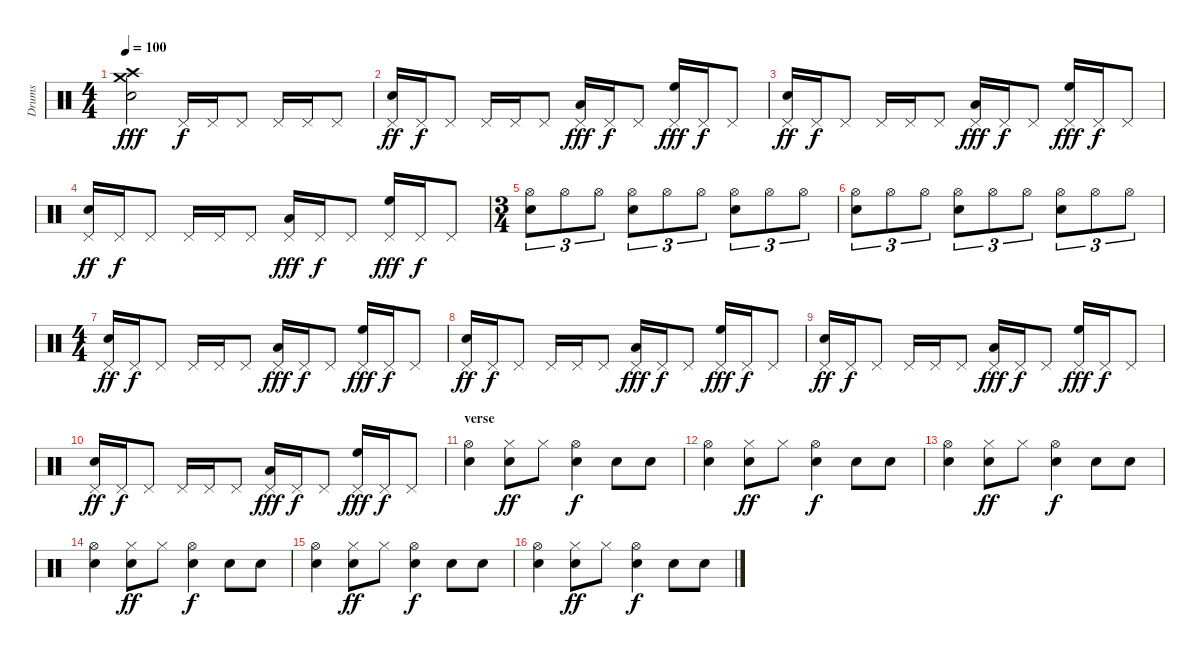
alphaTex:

\track ("Drums" "Drums") {instrument percussion}
\staff {score}
\articulation defaults
\ts (4 4)
\tempo 100
\clef neutral
\ks c
("Electric Snare (hit)" "Crash medium (hit)" "Crash high (hit)").2{dy fff} "Pedal Hi-Hat (hit)".16{dy f} "Pedal Hi-Hat (hit)".16 "Pedal Hi-Hat (hit)".8 "Pedal Hi-Hat (hit)".16 "Pedal Hi-Hat (hit)".16 "Pedal Hi-Hat (hit)".8 |
("Electric Snare (hit)" "Pedal Hi-Hat (hit)").16{dy ff} "Pedal Hi-Hat (hit)".16{dy f} "Pedal Hi-Hat (hit)".8 "Pedal Hi-Hat (hit)".16 "Pedal Hi-Hat (hit)".16 "Pedal Hi-Hat (hit)".8 ("Low Tom (hit)" "Pedal Hi-Hat (hit)").16{dy fff} "Pedal Hi-Hat (hit)".16{dy f} "Pedal Hi-Hat (hit)".8 ("Pedal Hi-Hat (hit)" "High Floor Tom (hit)").16{dy fff} "Pedal Hi-Hat (hit)".16{dy f} "Pedal Hi-Hat (hit)".8 |
("Electric Snare (hit)" "Pedal Hi-Hat (hit)").16{dy ff} "Pedal Hi-Hat (hit)".16{dy f} "Pedal Hi-Hat (hit)".8 "Pedal Hi-Hat (hit)".16 "Pedal Hi-Hat (hit)".16 "Pedal Hi-Hat (hit)".8 ("Low Tom (hit)" "Pedal Hi-Hat (hit)").16{dy fff} "Pedal Hi-Hat (hit)".16{dy f} "Pedal Hi-Hat (hit)".8 ("Pedal Hi-Hat (hit)" "High Floor Tom (hit)").16{dy fff} "Pedal Hi-Hat (hit)".16{dy f} "Pedal Hi-Hat (hit)".8 |
("Electric Snare (hit)" "Pedal Hi-Hat (hit)").16{dy ff} "Pedal Hi-Hat (hit)".16{dy f} "Pedal Hi-Hat (hit)".8 "Pedal Hi-Hat (hit)".16 "Pedal Hi-Hat (hit)".16 "Pedal Hi-Hat (hit)".8 ("Low Tom (hit)" "Pedal Hi-Hat (hit)").16{dy fff} "Pedal Hi-Hat (hit)".16{dy f} "Pedal Hi-Hat (hit)".8 ("Pedal Hi-Hat (hit)" "High Floor Tom (hit)").16{dy fff} "Pedal Hi-Hat (hit)".16{dy f} "Pedal Hi-Hat (hit)".8 |
\ts (3 4)
("Hi-Hat (open)" "Electric Snare (hit)").8{tu (3 2)} "Hi-Hat (open)".8{tu (3 2)} "Hi-Hat (open)".8{tu (3 2)} ("Electric Snare (hit)" "Hi-Hat (open)").8{tu (3 2)} "Hi-Hat (open)".8{tu (3 2)} "Hi-Hat (open)".8{tu (3 2)} ("Electric Snare (hit)" "Hi-Hat (open)").8{tu (3 2)} "Hi-Hat (open)".8{tu (3 2)} "Hi-Hat (open)".8{tu (3 2)} |
("Hi-Hat (open)" "Electric Snare (hit)").8{tu (3 2)} "Hi-Hat (open)".8{tu (3 2)} "Hi-Hat (open)".8{tu (3 2)} ("Electric Snare (hit)" "Hi-Hat (open)").8{tu (3 2)} "Hi-Hat (open)".8{tu (3 2)} "Hi-Hat (open)".8{tu (3 2)} ("Electric Snare (hit)" "Hi-Hat (open)").8{tu (3 2)} "Hi-Hat (open)".8{tu (3 2)} "Hi-Hat (open)".8{tu (3 2)} |
\ts (4 4)
("Electric Snare (hit)" "Pedal Hi-Hat (hit)").16{dy ff} "Pedal Hi-Hat (hit)".16{dy f} "Pedal Hi-Hat (hit)".8 "Pedal Hi-Hat (hit)".16 "Pedal Hi-Hat (hit)".16 "Pedal Hi-Hat (hit)".8 ("Low Tom (hit)" "Pedal Hi-Hat (hit)").16{dy fff} "Pedal Hi-Hat (hit)".16{dy f} "Pedal Hi-Hat (hit)".8 ("Pedal Hi-Hat (hit)" "High Floor Tom (hit)").16{dy fff} "Pedal Hi-Hat (hit)".16{dy f} "Pedal Hi-Hat (hit)".8 |
("Electric Snare (hit)" "Pedal Hi-Hat (hit)").16{dy ff} "Pedal Hi-Hat (hit)".16{dy f} "Pedal Hi-Hat (hit)".8 "Pedal Hi-Hat (hit)".16 "Pedal Hi-Hat (hit)".16 "Pedal Hi-Hat (hit)".8 ("Low Tom (hit)" "Pedal Hi-Hat (hit)").16{dy fff} "Pedal Hi-Hat (hit)".16{dy f} "Pedal Hi-Hat (hit)".8 ("Pedal Hi-Hat (hit)" "High Floor Tom (hit)").16{dy fff} "Pedal Hi-Hat (hit)".16{dy f} "Pedal Hi-Hat (hit)".8 |
("Electric Snare (hit)" "Pedal Hi-Hat (hit)").16{dy ff} "Pedal Hi-Hat (hit)".16{dy f} "Pedal Hi-Hat (hit)".8 "Pedal Hi-Hat (hit)".16 "Pedal Hi-Hat (hit)".16 "Pedal Hi-Hat (hit)".8 ("Low Tom (hit)" "Pedal Hi-Hat (hit)").16{dy fff} "Pedal Hi-Hat (hit)".16{dy f} "Pedal Hi-Hat (hit)".8 ("Pedal Hi-Hat (hit)" "High Floor Tom (hit)").16{dy fff} "Pedal Hi-Hat (hit)".16{dy f} "Pedal Hi-Hat (hit)".8 |
("Electric Snare (hit)" "Pedal Hi-Hat (hit)").16{dy ff} "Pedal Hi-Hat (hit)".16{dy f} "Pedal Hi-Hat (hit)".8 "Pedal Hi-Hat (hit)".16 "Pedal Hi-Hat (hit)".16 "Pedal Hi-Hat (hit)".8 ("Low Tom (hit)" "Pedal Hi-Hat (hit)").16{dy fff} "Pedal Hi-Hat (hit)".16{dy f} "Pedal Hi-Hat (hit)".8 ("Pedal Hi-Hat (hit)" "High Floor Tom (hit)").16{dy fff} "Pedal Hi-Hat (hit)".16{dy f} "Pedal Hi-Hat (hit)".8 |
\section ("" "verse")
("Hi-Hat (open)" "Electric Snare (hit)").4 ("Hi-Hat (closed)" "Electric Snare (hit)").8{dy ff} "Hi-Hat (closed)".8 ("Hi-Hat (open)" "Electric Snare (hit)").4{dy f} "Electric Snare (hit)".8 "Electric Snare (hit)".8 |
("Hi-Hat (open)" "Electric Snare (hit)").4 ("Hi-Hat (closed)" "Electric Snare (hit)").8{dy ff} "Hi-Hat (closed)".8 ("Hi-Hat (open)" "Electric Snare (hit)").4{dy f} "Electric Snare (hit)".8 "Electric Snare (hit)".8 |
("Hi-Hat (open)" "Electric Snare (hit)").4 ("Hi-Hat (closed)" "Electric Snare (hit)").8{dy ff} "Hi-Hat (closed)".8 ("Hi-Hat (open)" "Electric Snare (hit)").4{dy f} "Electric Snare (hit)".8 "Electric Snare (hit)".8 |
("Hi-Hat (open)" "Electric Snare (hit)").4 ("Hi-Hat (closed)" "Electric Snare (hit)").8{dy ff} "Hi-Hat (closed)".8 ("Hi-Hat (open)" "Electric Snare (hit)").4{dy f} "Electric Snare (hit)".8 "Electric Snare (hit)".8 |
("Hi-Hat (open)" "Electric Snare (hit)").4 ("Hi-Hat (closed)" "Electric Snare (hit)").8{dy ff} "Hi-Hat (closed)".8 ("Hi-Hat (open)" "Electric Snare (hit)").4{dy f} "Electric Snare (hit)".8 "Electric Snare (hit)".8 |
("Hi-Hat (open)" "Electric Snare (hit)").4 ("Hi-Hat (closed)" "Electric Snare (hit)").8{dy ff} "Hi-Hat (closed)".8 ("Hi-Hat (open)" "Electric Snare (hit)").4{dy f} "Electric Snare (hit)".8 "Electric Snare (hit)".8
